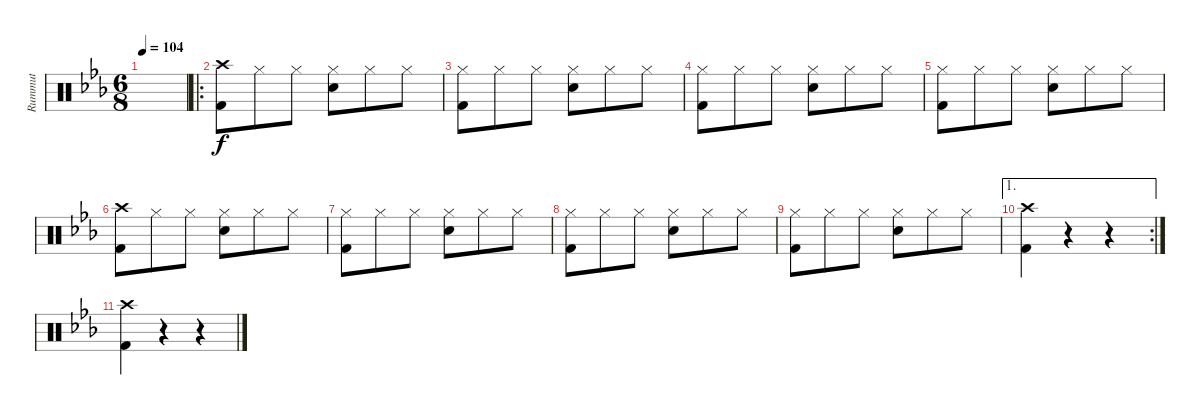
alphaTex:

\track ("Rummut" "Rummut") {instrument percussion}
\staff {score}
\articulation defaults
\ts (6 8)
\tempo 104
\clef neutral
\ks eb
|
\ro
("Crash high (hit)" "Kick (hit) 2").8 "Hi-Hat (closed)".8 "Hi-Hat (closed)".8 ("Hi-Hat (closed)" "Snare (hit) 2").8 "Hi-Hat (closed)".8 "Hi-Hat (closed)".8 |
("Hi-Hat (closed)" "Kick (hit) 2").8 "Hi-Hat (closed)".8 "Hi-Hat (closed)".8 ("Hi-Hat (closed)" "Snare (hit) 2").8 "Hi-Hat (closed)".8 "Hi-Hat (closed)".8 |
("Hi-Hat (closed)" "Kick (hit) 2").8 "Hi-Hat (closed)".8 "Hi-Hat (closed)".8 ("Hi-Hat (closed)" "Snare (hit) 2").8 "Hi-Hat (closed)".8 "Hi-Hat (closed)".8 |
("Hi-Hat (closed)" "Kick (hit) 2").8 "Hi-Hat (closed)".8 "Hi-Hat (closed)".8 ("Hi-Hat (closed)" "Snare (hit) 2").8 "Hi-Hat (closed)".8 "Hi-Hat (closed)".8 |
("Crash high (hit)" "Kick (hit) 2").8 "Hi-Hat (closed)".8 "Hi-Hat (closed)".8 ("Hi-Hat (closed)" "Snare (hit) 2").8 "Hi-Hat (closed)".8 "Hi-Hat (closed)".8 |
("Hi-Hat (closed)" "Kick (hit) 2").8 "Hi-Hat (closed)".8 "Hi-Hat (closed)".8 ("Hi-Hat (closed)" "Snare (hit) 2").8 "Hi-Hat (closed)".8 "Hi-Hat (closed)".8 |
("Hi-Hat (closed)" "Kick (hit) 2").8 "Hi-Hat (closed)".8 "Hi-Hat (closed)".8 ("Hi-Hat (closed)" "Snare (hit) 2").8 "Hi-Hat (closed)".8 "Hi-Hat (closed)".8 |
("Hi-Hat (closed)" "Kick (hit) 2").8 "Hi-Hat (closed)".8 "Hi-Hat (closed)".8 ("Hi-Hat (closed)" "Snare (hit) 2").8 "Hi-Hat (closed)".8 "Hi-Hat (closed)".8 |
\ae 1
\rc 2
("Crash high (hit)" "Kick (hit) 2").4 r.4 r.4 |
("Crash high (hit)" "Kick (hit) 2").4 r.4 r.4
